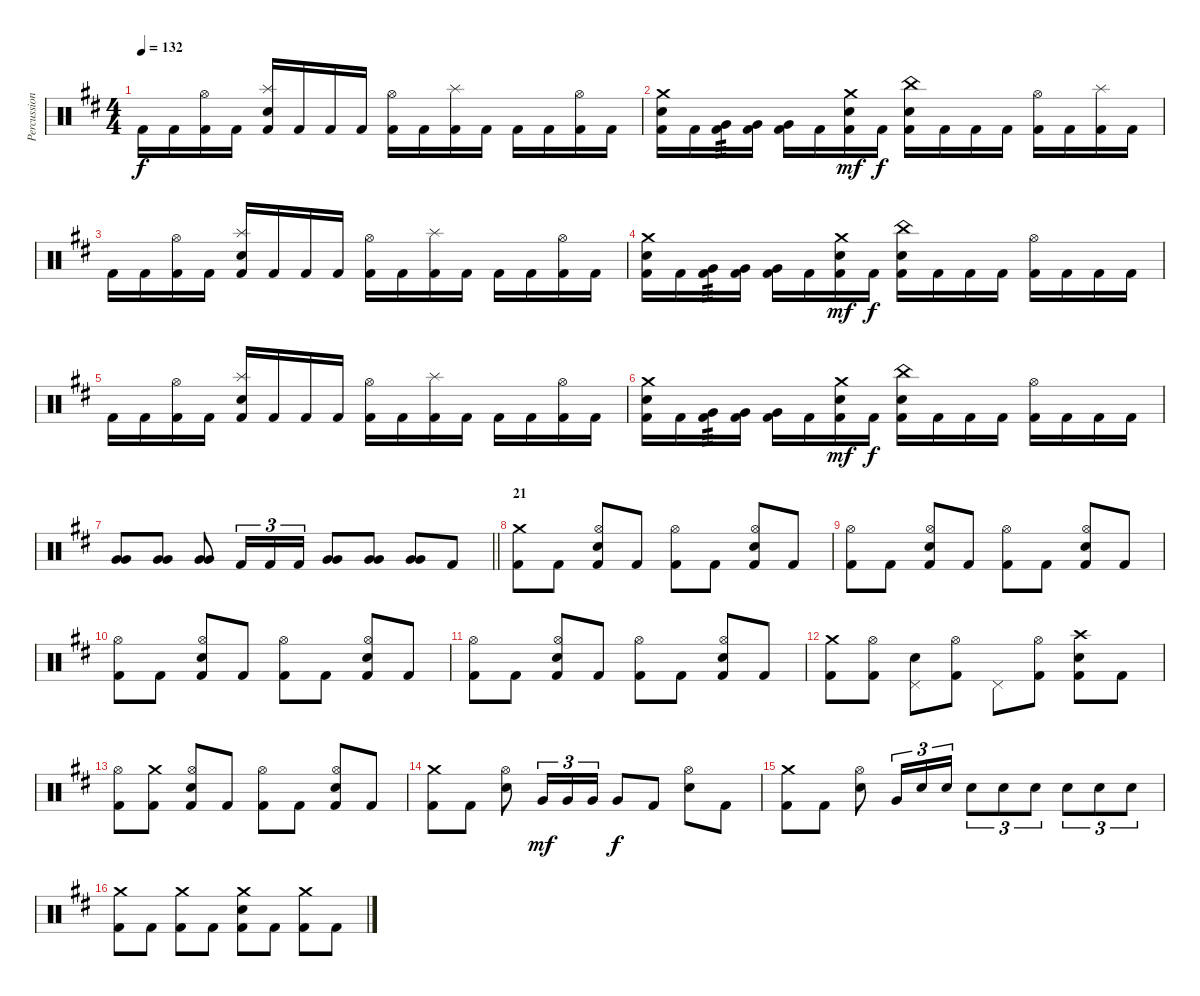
\track ("Percussion" "Percussion") {instrument percussion}
\staff {score}
\articulation defaults
\ts (4 4)
\tempo 132
\clef neutral
\ks bminor "Kick (hit) 2".16{dy f} "Kick (hit) 2".16
("Hi-Hat (open)" "Kick (hit) 2").16 "Kick (hit) 2".16 ("Splash (hit)" "Snare (hit) 2" "Kick (hit) 2").16 "Kick (hit) 2".16 "Kick (hit) 2".16 "Kick (hit) 2".16 ("Hi-Hat (open)" "Kick (hit) 2").16 "Kick (hit) 2".16 ("Splash (hit)" "Kick (hit) 2").16 "Kick (hit) 2".16 "Kick (hit) 2".16 "Kick (hit) 2".16 ("Hi-Hat (open)" "Kick (hit) 2").16 "Kick (hit) 2".16 |
("Crash medium (hit)" "Snare (hit) 2" "Kick (hit) 2").16 "Kick (hit) 2".16 ("Very Low Tom (hit)" "Kick (hit) 2").16{tp 3} ("Very Low Tom (hit)" "Kick (hit) 2").16 ("Very Low Tom (hit)" "Kick (hit) 2").16 "Kick (hit) 2".16 ("Crash medium (hit)" "Snare (hit) 2" "Kick (hit) 2").16{dy mf} "Kick (hit) 2".16{dy f} ("China (hit)" "Snare (hit) 2" "Kick (hit) 2").16 "Kick (hit) 2".16 "Kick (hit) 2".16 "Kick (hit) 2".16 ("Hi-Hat (open)" "Kick (hit) 2").16 "Kick (hit) 2".16 ("Splash (hit)" "Kick (hit) 2").16 "Kick (hit) 2".16 |
"Kick (hit) 2".16 "Kick (hit) 2".16 ("Hi-Hat (open)" "Kick (hit) 2").16 "Kick (hit) 2".16 ("Splash (hit)" "Snare (hit) 2" "Kick (hit) 2").16 "Kick (hit) 2".16 "Kick (hit) 2".16 "Kick (hit) 2".16 ("Hi-Hat (open)" "Kick (hit) 2").16 "Kick (hit) 2".16 ("Splash (hit)" "Kick (hit) 2").16 "Kick (hit) 2".16 "Kick (hit) 2".16 "Kick (hit) 2".16 ("Hi-Hat (open)" "Kick (hit) 2").16 "Kick (hit) 2".16 |
("Crash medium (hit)" "Snare (hit) 2" "Kick (hit) 2").16 "Kick (hit) 2".16 ("Very Low Tom (hit)" "Kick (hit) 2").16{tp 3} ("Very Low Tom (hit)" "Kick (hit) 2").16 ("Very Low Tom (hit)" "Kick (hit) 2").16 "Kick (hit) 2".16 ("Crash medium (hit)" "Snare (hit) 2" "Kick (hit) 2").16{dy mf} "Kick (hit) 2".16{dy f} ("China (hit)" "Snare (hit) 2" "Kick (hit) 2").16 "Kick (hit) 2".16 "Kick (hit) 2".16 "Kick (hit) 2".16 ("Hi-Hat (open)" "Kick (hit) 2").16 "Kick (hit) 2".16 "Kick (hit) 2".16 "Kick (hit) 2".16 |
"Kick (hit) 2".16 "Kick (hit) 2".16 ("Hi-Hat (open)" "Kick (hit) 2").16 "Kick (hit) 2".16 ("Splash (hit)" "Snare (hit) 2" "Kick (hit) 2").16 "Kick (hit) 2".16 "Kick (hit) 2".16 "Kick (hit) 2".16 ("Hi-Hat (open)" "Kick (hit) 2").16 "Kick (hit) 2".16 ("Splash (hit)" "Kick (hit) 2").16 "Kick (hit) 2".16 "Kick (hit) 2".16 "Kick (hit) 2".16 ("Hi-Hat (open)" "Kick (hit) 2").16 "Kick (hit) 2".16 |
("Crash medium (hit)" "Snare (hit) 2" "Kick (hit) 2").16 "Kick (hit) 2".16 ("Very Low Tom (hit)" "Kick (hit) 2").16{tp 3} ("Very Low Tom (hit)" "Kick (hit) 2").16 ("Very Low Tom (hit)" "Kick (hit) 2").16 "Kick (hit) 2".16 ("Crash medium (hit)" "Snare (hit) 2" "Kick (hit) 2").16{dy mf} "Kick (hit) 2".16{dy f} ("China (hit)" "Snare (hit) 2" "Kick (hit) 2").16 "Kick (hit) 2".16 "Kick (hit) 2".16 "Kick (hit) 2".16 ("Hi-Hat (open)" "Kick (hit) 2").16 "Kick (hit) 2".16 "Kick (hit) 2".16 "Kick (hit) 2".16 |
\barLineRight lightlight
("Very Low Tom (hit)" "Very Low Tom (hit)").8{bu 60} ("Very Low Tom (hit)" "Very Low Tom (hit)").8{bu 60} ("Very Low Tom (hit)" "Very Low Tom (hit)").8{bu 60} "Kick (hit) 2".16{tu (3 2)} "Kick (hit) 2".16{tu (3 2)} "Kick (hit) 2".16{tu (3 2)} ("Very Low Tom (hit)" "Very Low Tom (hit)").8{bu 60} ("Very Low Tom (hit)" "Very Low Tom (hit)").8{bu 60} ("Very Low Tom (hit)" "Very Low Tom (hit)").8{bu 60} "Kick (hit) 2".8 |
\section ("" "21")
("Crash medium (hit)" "Kick (hit) 2").8 "Kick (hit) 2".8 ("Hi-Hat (open)" "Snare (hit) 2" "Kick (hit) 2").8 "Kick (hit) 2".8 ("Hi-Hat (open)" "Kick (hit) 2").8 "Kick (hit) 2".8 ("Hi-Hat (open)" "Snare (hit) 2" "Kick (hit) 2").8 "Kick (hit) 2".8 |
("Hi-Hat (open)" "Kick (hit) 2").8 "Kick (hit) 2".8 ("Hi-Hat (open)" "Snare (hit) 2" "Kick (hit) 2").8 "Kick (hit) 2".8 ("Hi-Hat (open)" "Kick (hit) 2").8 "Kick (hit) 2".8 ("Hi-Hat (open)" "Snare (hit) 2" "Kick (hit) 2").8 "Kick (hit) 2".8 |
("Hi-Hat (open)" "Kick (hit) 2").8 "Kick (hit) 2".8 ("Hi-Hat (open)" "Snare (hit) 2" "Kick (hit) 2").8 "Kick (hit) 2".8 ("Hi-Hat (open)" "Kick (hit) 2").8 "Kick (hit) 2".8 ("Hi-Hat (open)" "Snare (hit) 2" "Kick (hit) 2").8 "Kick (hit) 2".8 |
("Hi-Hat (open)" "Kick (hit) 2").8 "Kick (hit) 2".8 ("Hi-Hat (open)" "Snare (hit) 2" "Kick (hit) 2").8 "Kick (hit) 2".8 ("Hi-Hat (open)" "Kick (hit) 2").8 "Kick (hit) 2".8 ("Hi-Hat (open)" "Snare (hit) 2" "Kick (hit) 2").8 "Kick (hit) 2".8 |
("Crash medium (hit)" "Kick (hit) 2").8 ("Hi-Hat (open)" "Kick (hit) 2").8 ("Pedal Hi-Hat (hit)" "Snare (hit) 2").8 ("Hi-Hat (open)" "Kick (hit) 2").8 "Pedal Hi-Hat (hit)".8 ("Hi-Hat (open)" "Kick (hit) 2").8 ("Crash high (hit)" "Snare (hit) 2" "Kick (hit) 2").8 "Kick (hit) 2".8 |
("Hi-Hat (open)" "Kick (hit) 2").8 ("Crash medium (hit)" "Kick (hit) 2").8 ("Hi-Hat (open)" "Snare (hit) 2" "Kick (hit) 2").8 "Kick (hit) 2".8 ("Hi-Hat (open)" "Kick (hit) 2").8 "Kick (hit) 2".8 ("Hi-Hat (open)" "Snare (hit) 2" "Kick (hit) 2").8 "Kick (hit) 2".8 |
("Crash medium (hit)" "Kick (hit) 2").8 "Kick (hit) 2".8 ("Hi-Hat (open)" "Snare (hit) 2").8 "Very Low Tom (hit)".16{tu (3 2) dy mf} "Very Low Tom (hit)".16{tu (3 2)} "Very Low Tom (hit)".16{tu (3 2)} "Very Low Tom (hit)".8{dy f} "Kick (hit) 2".8 ("Hi-Hat (open)" "Snare (hit) 2").8 "Kick (hit) 2".8 |
("Crash medium (hit)" "Kick (hit) 2").8 "Kick (hit) 2".8 ("Hi-Hat (open)" "Snare (hit) 2").8 "Very Low Tom (hit)".16{tu (3 2)} "Snare (hit) 2".16{tu (3 2)} "Snare (hit) 2".16{tu (3 2)} "Snare (hit) 2".8{tu (3 2)} "Snare (hit) 2".8{tu (3 2)} "Snare (hit) 2".8{tu (3 2)} "Snare (hit) 2".8{tu (3 2)} "Snare (hit) 2".8{tu (3 2)} "Snare (hit) 2".8{tu (3 2)} |
("Crash medium (hit)" "Kick (hit) 2").8 "Kick (hit) 2".8 ("Crash medium (hit)" "Kick (hit) 2").8 "Kick (hit) 2".8 ("Crash medium (hit)" "Snare (hit) 2" "Kick (hit) 2").8 "Kick (hit) 2".8 ("Crash medium (hit)" "Kick (hit) 2").8 "Kick (hit) 2".8
